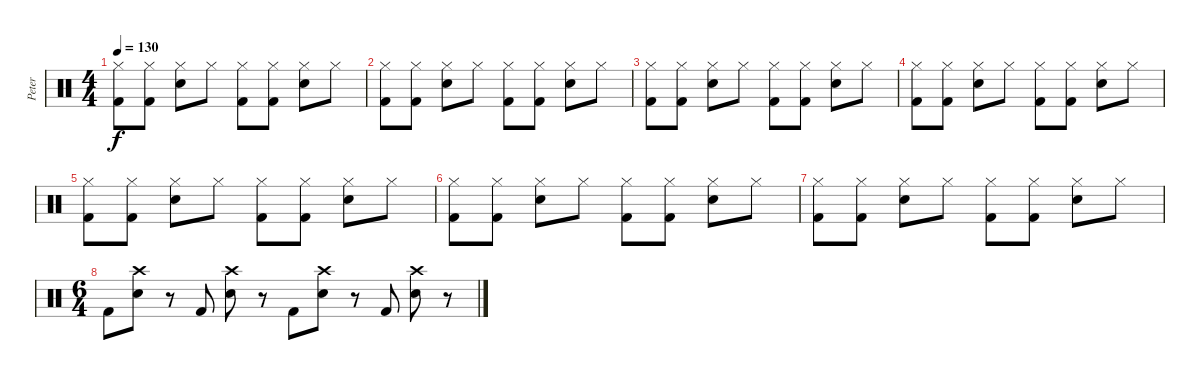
\track ("Peter" "Peter") {instrument percussion}
\staff {score}
\articulation defaults
\ts (4 4)
\tempo 130
\clef neutral
\ks c
("Hi-Hat (closed)" "Kick (hit) 2").8{dy f} ("Hi-Hat (closed)" "Kick (hit) 2").8 ("Hi-Hat (closed)" "Electric Snare (hit)").8 "Hi-Hat (closed)".8 ("Hi-Hat (closed)" "Kick (hit) 2").8 ("Hi-Hat (closed)" "Kick (hit) 2").8 ("Hi-Hat (closed)" "Electric Snare (hit)").8 "Hi-Hat (closed)".8 |
("Hi-Hat (closed)" "Kick (hit) 2").8 ("Hi-Hat (closed)" "Kick (hit) 2").8 ("Hi-Hat (closed)" "Electric Snare (hit)").8 "Hi-Hat (closed)".8 ("Hi-Hat (closed)" "Kick (hit) 2").8 ("Hi-Hat (closed)" "Kick (hit) 2").8 ("Hi-Hat (closed)" "Electric Snare (hit)").8 "Hi-Hat (closed)".8 |
("Hi-Hat (closed)" "Kick (hit) 2").8 ("Hi-Hat (closed)" "Kick (hit) 2").8 ("Hi-Hat (closed)" "Electric Snare (hit)").8 "Hi-Hat (closed)".8 ("Hi-Hat (closed)" "Kick (hit) 2").8 ("Hi-Hat (closed)" "Kick (hit) 2").8 ("Hi-Hat (closed)" "Electric Snare (hit)").8 "Hi-Hat (closed)".8 |
("Hi-Hat (closed)" "Kick (hit) 2").8 ("Hi-Hat (closed)" "Kick (hit) 2").8 ("Hi-Hat (closed)" "Electric Snare (hit)").8 "Hi-Hat (closed)".8 ("Hi-Hat (closed)" "Kick (hit) 2").8 ("Hi-Hat (closed)" "Kick (hit) 2").8 ("Hi-Hat (closed)" "Electric Snare (hit)").8 "Hi-Hat (closed)".8 |
("Hi-Hat (closed)" "Kick (hit) 2").8 ("Hi-Hat (closed)" "Kick (hit) 2").8 ("Hi-Hat (closed)" "Electric Snare (hit)").8 "Hi-Hat (closed)".8 ("Hi-Hat (closed)" "Kick (hit) 2").8 ("Hi-Hat (closed)" "Kick (hit) 2").8 ("Hi-Hat (closed)" "Electric Snare (hit)").8 "Hi-Hat (closed)".8 |
("Hi-Hat (closed)" "Kick (hit) 2").8 ("Hi-Hat (closed)" "Kick (hit) 2").8 ("Hi-Hat (closed)" "Electric Snare (hit)").8 "Hi-Hat (closed)".8 ("Hi-Hat (closed)" "Kick (hit) 2").8 ("Hi-Hat (closed)" "Kick (hit) 2").8 ("Hi-Hat (closed)" "Electric Snare (hit)").8 "Hi-Hat (closed)".8 |
("Hi-Hat (closed)" "Kick (hit) 2").8 ("Hi-Hat (closed)" "Kick (hit) 2").8 ("Hi-Hat (closed)" "Electric Snare (hit)").8 "Hi-Hat (closed)".8 ("Hi-Hat (closed)" "Kick (hit) 2").8 ("Hi-Hat (closed)" "Kick (hit) 2").8 ("Hi-Hat (closed)" "Electric Snare (hit)").8 "Hi-Hat (closed)".8 |
\ts (6 4)
"Kick (hit) 2".8 ("Crash high (hit)" "Electric Snare (hit)").8 r.8 "Kick (hit) 2".8 ("Crash high (hit)" "Electric Snare (hit)").8 r.8 "Kick (hit) 2".8 ("Crash high (hit)" "Electric Snare (hit)").8 r.8 "Kick (hit) 2".8 ("Crash high (hit)" "Electric Snare (hit)").8 r.8
